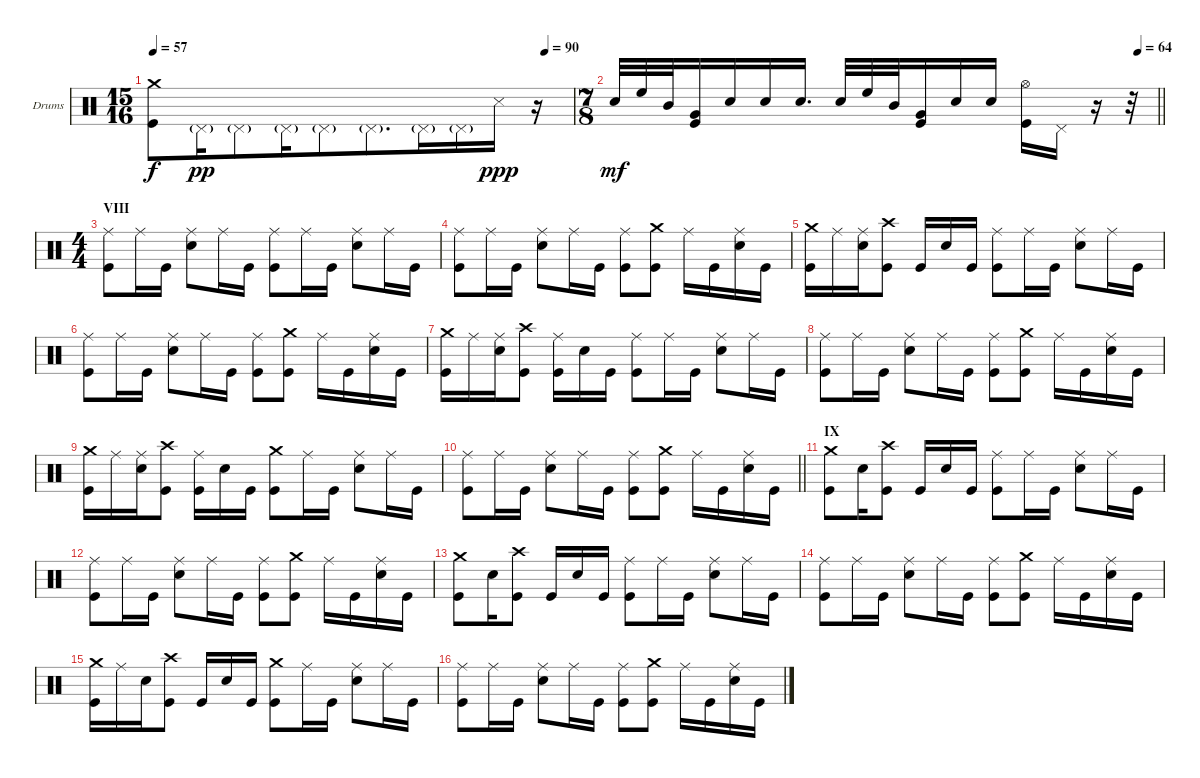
\bracketExtendMode groupsimilarinstruments
\firstSystemTrackNameOrientation horizontal
\otherSystemsTrackNameOrientation horizontal
\track ("Drumkit" "Drums") {instrument percussion}
\staff {score}
\articulation defaults
\ts (15 16)
\beaming (8 7)
\tempo 57
\tempo (90 0.933333)
\clef neutral
\ks c
("Crash medium (hit)" "Kick (hit)").8{dy f} "Pedal Hi-Hat (hit)"{g}.16{dy pp} "Pedal Hi-Hat (hit)"{g}.8 "Pedal Hi-Hat (hit)"{g}.16 "Pedal Hi-Hat (hit)"{g}.8 "Pedal Hi-Hat (hit)"{g}.8{d} "Pedal Hi-Hat (hit)"{g}.16 "Pedal Hi-Hat (hit)"{g}.16 "Snare (side stick) 3".16{dy ppp} r.16 |
\ts (7 8)
\beaming (8 3 2 2)
\tempo (64 0.964286)
\barLineRight lightlight "Snare (hit) 2".32{dy mf} "High Floor Tom (hit)".32 "Mid Tom (hit)".32
("Very Low Tom (hit)" "Kick (hit)").16 "Snare (hit) 2".16 "Snare (hit) 2".16 "Snare (hit) 2".16{d} "Snare (hit) 2".32 "High Floor Tom (hit)".32 "Mid Tom (hit)".32 ("Very Low Tom (hit)" "Kick (hit)").16 "Snare (hit) 2".16 "Snare (hit) 2".16 ("Kick (hit)" "Hi-Hat (open)").16 "Pedal Hi-Hat (hit)".16 r.16 r.32 |
\ts (4 4)
\beaming (8 2 2 2 2)
\section ("" "VIII")
("Ride (middle)" "Kick (hit)").8 "Ride (middle)".16 "Kick (hit)".16 ("Ride (middle)" "Snare (hit) 2").8 "Ride (middle)".16 "Kick (hit)".16 ("Ride (middle)" "Kick (hit)").8 "Ride (middle)".16 "Kick (hit)".16 ("Ride (middle)" "Snare (hit) 2").8 "Ride (middle)".16 "Kick (hit)".16 |
("Ride (middle)" "Kick (hit)").8 "Ride (middle)".16 "Kick (hit)".16 ("Ride (middle)" "Snare (hit) 2").8 "Ride (middle)".16 "Kick (hit)".16 ("Ride (middle)" "Kick (hit)").8 ("Crash medium (hit)" "Kick (hit)").8 "Ride (middle)".16 "Kick (hit)".16 ("Snare (hit) 2" "Ride (middle)").16 "Kick (hit)".16 |
("Crash medium (hit)" "Kick (hit)").16 "Ride (middle)".16 ("Ride (middle)" "Snare (hit) 2").16 ("Kick (hit)" "Crash high (hit)").8 "Kick (hit)".16 "Snare (hit) 2".16 "Kick (hit)".16 ("Kick (hit)" "Ride (middle)").8 "Ride (middle)".16 "Kick (hit)".16 ("Snare (hit) 2" "Ride (middle)").8 "Ride (middle)".16 "Kick (hit)".16 |
("Ride (middle)" "Kick (hit)").8 "Ride (middle)".16 "Kick (hit)".16 ("Ride (middle)" "Snare (hit) 2").8 "Ride (middle)".16 "Kick (hit)".16 ("Ride (middle)" "Kick (hit)").8 ("Crash medium (hit)" "Kick (hit)").8 "Ride (middle)".16 "Kick (hit)".16 ("Snare (hit) 2" "Ride (middle)").16 "Kick (hit)".16 |
("Crash medium (hit)" "Kick (hit)").16 "Ride (middle)".16 ("Ride (middle)" "Snare (hit) 2").16 ("Kick (hit)" "Crash high (hit)").8 ("Kick (hit)" "Ride (middle)").16 "Snare (hit) 2".16 "Kick (hit)".16 ("Kick (hit)" "Ride (middle)").8 "Ride (middle)".16 "Kick (hit)".16 ("Snare (hit) 2" "Ride (middle)").8 "Ride (middle)".16 "Kick (hit)".16 |
("Ride (middle)" "Kick (hit)").8 "Ride (middle)".16 "Kick (hit)".16 ("Ride (middle)" "Snare (hit) 2").8 "Ride (middle)".16 "Kick (hit)".16 ("Ride (middle)" "Kick (hit)").8 ("Crash medium (hit)" "Kick (hit)").8 "Ride (middle)".16 "Kick (hit)".16 ("Snare (hit) 2" "Ride (middle)").16 "Kick (hit)".16 |
("Crash medium (hit)" "Kick (hit)").16 "Ride (middle)".16 ("Ride (middle)" "Snare (hit) 2").16 ("Kick (hit)" "Crash high (hit)").8 ("Kick (hit)" "Ride (middle)").16 "Snare (hit) 2".16 "Kick (hit)".16 ("Kick (hit)" "Crash medium (hit)").8 "Ride (middle)".16 "Kick (hit)".16 ("Snare (hit) 2" "Ride (middle)").8 "Ride (middle)".16 "Kick (hit)".16 |
\barLineRight lightlight
("Ride (middle)" "Kick (hit)").8 "Ride (middle)".16 "Kick (hit)".16 ("Ride (middle)" "Snare (hit) 2").8 "Ride (middle)".16 "Kick (hit)".16 ("Ride (middle)" "Kick (hit)").8 ("Crash medium (hit)" "Kick (hit)").8 "Ride (middle)".16 "Kick (hit)".16 ("Snare (hit) 2" "Ride (middle)").16 "Kick (hit)".16 |
\section ("" "IX")
("Crash medium (hit)" "Kick (hit)").8 "Snare (hit) 2".16 ("Kick (hit)" "Crash high (hit)").8 "Kick (hit)".16 "Snare (hit) 2".16 "Kick (hit)".16 ("Ride (middle)" "Kick (hit)").8 "Ride (middle)".16 "Kick (hit)".16 ("Snare (hit) 2" "Ride (middle)").8 "Ride (middle)".16 "Kick (hit)".16 |
("Ride (middle)" "Kick (hit)").8 "Ride (middle)".16 "Kick (hit)".16 ("Ride (middle)" "Snare (hit) 2").8 "Ride (middle)".16 "Kick (hit)".16 ("Ride (middle)" "Kick (hit)").8 ("Crash medium (hit)" "Kick (hit)").8 "Ride (middle)".16 "Kick (hit)".16 ("Snare (hit) 2" "Ride (middle)").16 "Kick (hit)".16 |
("Crash medium (hit)" "Kick (hit)").8 "Snare (hit) 2".16 ("Kick (hit)" "Crash high (hit)").8 "Kick (hit)".16 "Snare (hit) 2".16 "Kick (hit)".16 ("Ride (middle)" "Kick (hit)").8 "Ride (middle)".16 "Kick (hit)".16 ("Snare (hit) 2" "Ride (middle)").8 "Ride (middle)".16 "Kick (hit)".16 |
("Ride (middle)" "Kick (hit)").8 "Ride (middle)".16 "Kick (hit)".16 ("Ride (middle)" "Snare (hit) 2").8 "Ride (middle)".16 "Kick (hit)".16 ("Ride (middle)" "Kick (hit)").8 ("Crash medium (hit)" "Kick (hit)").8 "Ride (middle)".16 "Kick (hit)".16 ("Snare (hit) 2" "Ride (middle)").16 "Kick (hit)".16 |
("Crash medium (hit)" "Kick (hit)").16 "Ride (middle)".16 "Snare (hit) 2".16 ("Kick (hit)" "Crash high (hit)").8 "Kick (hit)".16 "Snare (hit) 2".16 "Kick (hit)".16 ("Kick (hit)" "Crash medium (hit)").8 "Ride (middle)".16 "Kick (hit)".16 ("Snare (hit) 2" "Ride (middle)").8 "Ride (middle)".16 "Kick (hit)".16 |
("Ride (middle)" "Kick (hit)").8 "Ride (middle)".16 "Kick (hit)".16 ("Ride (middle)" "Snare (hit) 2").8 "Ride (middle)".16 "Kick (hit)".16 ("Ride (middle)" "Kick (hit)").8 ("Crash medium (hit)" "Kick (hit)").8 "Ride (middle)".16 "Kick (hit)".16 ("Snare (hit) 2" "Ride (middle)").16 "Kick (hit)".16
